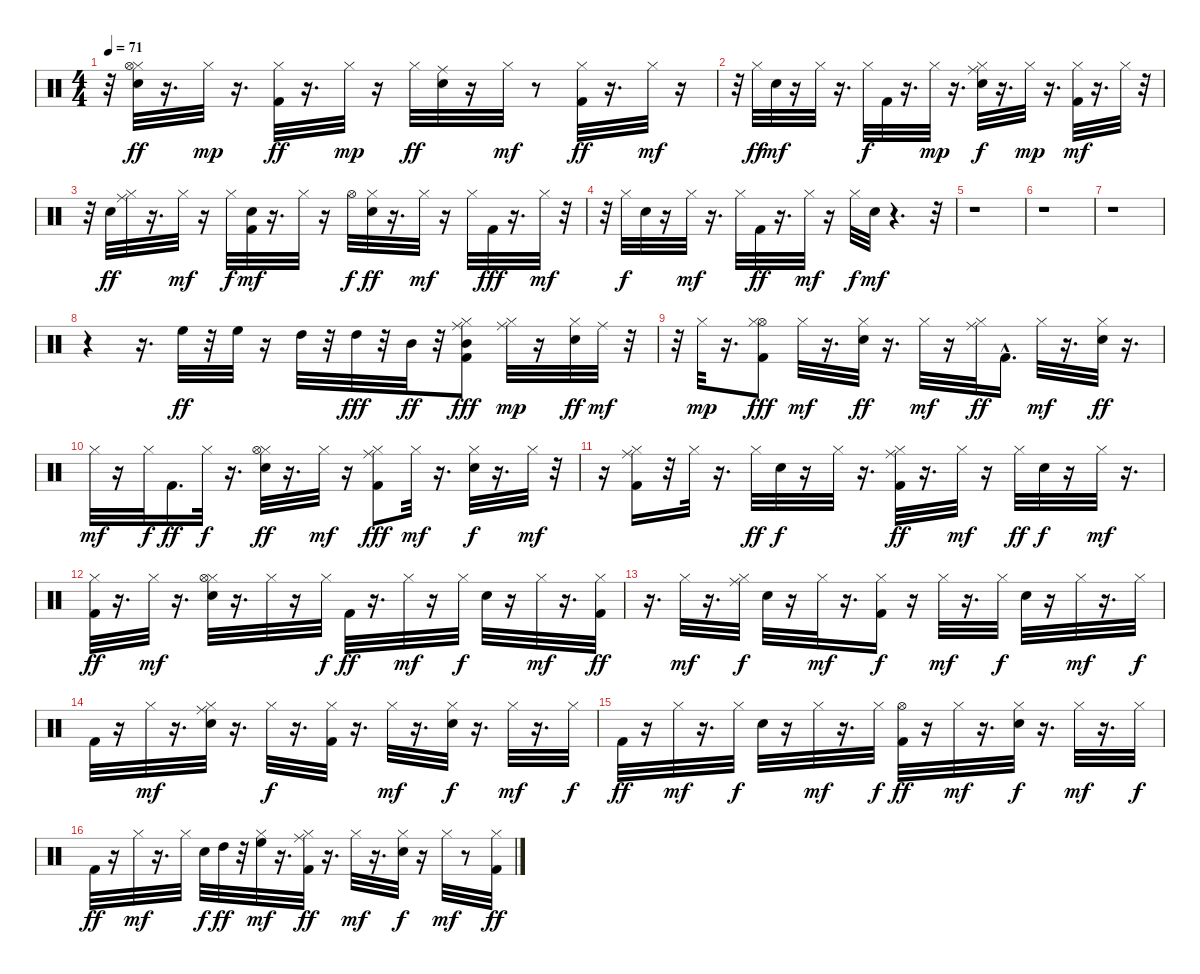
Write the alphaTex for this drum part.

\track "" {instrument percussion}
\staff {score}
\articulation defaults
\ts (4 4)
\tempo 71
\clef neutral
\ks c
r.32{dy mp} ("Hi-Hat (closed)" "Hi-Hat (open)" "Snare (hit) 2").32{dy ff} r.16{d} "Hi-Hat (closed)".32{dy mp} r.16{d} ("Kick (hit) 2" "Hi-Hat (closed)").32{dy ff} r.16{d} "Hi-Hat (closed)".32{dy mp} r.16 "Hi-Hat (closed)".32{dy ff} ("Ride (middle)" "Snare (hit) 2").32 r.16 "Hi-Hat (closed)".32{dy mf} r.8 ("Hi-Hat (closed)" "Kick (hit) 2").32{dy ff} r.16{d} "Hi-Hat (closed)".32{dy mf} r.16 |
r.32 "Hi-Hat (closed)".32{dy ff} "Snare (hit) 2".32{dy mf} r.16 "Hi-Hat (closed)".32 r.16{d} "Hi-Hat (closed)".32{dy f} "Kick (hit) 2".32 r.16{d} "Hi-Hat (closed)".32{dy mp} r.16{d} ("Hi-Hat (closed)" "Ride (middle)" "Snare (hit) 2").32{dy f} r.16{d} "Hi-Hat (closed)".32{dy mp} r.16{d} ("Kick (hit) 2" "Hi-Hat (closed)").32{dy mf} r.16{d} "Hi-Hat (closed)".32 r.32 |
r.32 "Snare (hit) 2".32{dy ff} ("Hi-Hat (closed)" "Ride (middle)").32 r.16{d} "Hi-Hat (closed)".32{dy mf} r.16 "Hi-Hat (closed)".32{dy f} ("Kick (hit) 2" "Snare (hit) 2").32{dy mf} r.16{d} "Hi-Hat (closed)".32 r.16 "Hi-Hat (open)".32{dy f} ("Snare (hit) 2" "Hi-Hat (closed)").32{dy ff} r.16{d} "Hi-Hat (closed)".32{dy mf} r.16 "Hi-Hat (closed)".32 "Kick (hit) 2".32{dy fff} r.16{d} "Hi-Hat (closed)".32{dy mf} r.32 |
r.32 "Hi-Hat (closed)".32{dy f} "Snare (hit) 2".32 r.16 "Hi-Hat (closed)".32{dy mf} r.16{d} "Hi-Hat (closed)".32 "Kick (hit) 2".32{dy ff} r.16{d} "Hi-Hat (closed)".32{dy mf} r.16 "Hi-Hat (closed)".32{dy f} "Snare (hit) 2".32{dy mf} r.4{d} r.32 |
r.1 |
r.1 |
r.1 |
r.4 r.16{d} "High Floor Tom (hit)".32{dy ff} r.32 "High Floor Tom (hit)".32 r.16 "High Tom (hit)".32 r.32 "High Tom (hit)".32{dy fff} r.32 "Mid Tom (hit)".32{dy ff} r.32 ("Ride (middle)" "Hi-Hat (closed)" "Mid Tom (hit)" "Kick (hit) 2").8{dy fff} ("Hi-Hat (closed)" "Ride (middle)").32{dy mp} r.16 ("Hi-Hat (closed)" "Snare (hit) 2").32{dy ff} "Ride (middle)".32{dy mf} r.32 |
r.32 "Hi-Hat (closed)".32{dy mp} r.16{d} ("Hi-Hat (open)" "Hi-Hat (closed)" "Kick (hit) 2").8{dy fff} "Hi-Hat (closed)".32{dy mf} r.16{d} ("Hi-Hat (closed)" "Snare (hit) 2").32{dy ff} r.16{d} "Hi-Hat (closed)".32{dy mf} r.16 ("Ride (middle)" "Hi-Hat (closed)").32{dy ff} "Kick (hit) 2"{hac}.16{d} "Hi-Hat (closed)".32{dy mf} r.16{d} ("Hi-Hat (closed)" "Snare (hit) 2").32{dy ff} r.16{d} |
"Hi-Hat (closed)".32{dy mf} r.16 "Hi-Hat (closed)".32{dy f} "Kick (hit) 2".16{d dy ff} "Hi-Hat (closed)".32{dy f} r.16{d} ("Hi-Hat (closed)" "Hi-Hat (open)" "Snare (hit) 2").32{dy ff} r.16{d} "Hi-Hat (closed)".32{dy mf} r.16 ("Hi-Hat (closed)" "Ride (middle)" "Kick (hit) 2").8{dy fff} "Hi-Hat (closed)".32{dy mf} r.16{d} ("Hi-Hat (closed)" "Snare (hit) 2").32{dy f} r.16{d} "Hi-Hat (closed)".32{dy mf} r.32 |
r.16 ("Hi-Hat (closed)" "Kick (hit) 2" "Ride (middle)").16 r.32 "Hi-Hat (closed)".32 r.16{d} "Hi-Hat (closed)".32{dy ff} "Snare (hit) 2".32{dy f} r.16 "Hi-Hat (closed)".32 r.16{d} ("Hi-Hat (closed)" "Ride (middle)" "Kick (hit) 2").32{dy ff} r.16{d} "Hi-Hat (closed)".32{dy mf} r.16 "Hi-Hat (closed)".32{dy ff} "Snare (hit) 2".32{dy f} r.16 "Hi-Hat (closed)".32{dy mf} r.16{d} |
("Kick (hit) 2" "Hi-Hat (closed)").32{dy ff} r.16{d} "Hi-Hat (closed)".32{dy mf} r.16{d} ("Hi-Hat (closed)" "Hi-Hat (open)" "Snare (hit) 2").32 r.16{d} "Hi-Hat (closed)".32 r.16 "Hi-Hat (closed)".32{dy f} "Kick (hit) 2".32{dy ff} r.16{d} "Hi-Hat (closed)".32{dy mf} r.16 "Hi-Hat (closed)".32{dy f} "Snare (hit) 2".32 r.16 "Hi-Hat (closed)".32{dy mf} r.16{d} ("Hi-Hat (closed)" "Kick (hit) 2").32{dy ff} |
r.16{d} "Hi-Hat (closed)".32{dy mf} r.16{d} ("Ride (middle)" "Hi-Hat (closed)").32{dy f} "Snare (hit) 2".32 r.16 "Hi-Hat (closed)".32{dy mf} r.16{d} ("Hi-Hat (closed)" "Kick (hit) 2").16{dy f} r.16 "Hi-Hat (closed)".32{dy mf} r.16{d} "Hi-Hat (closed)".32{dy f} "Snare (hit) 2".32 r.16 "Hi-Hat (closed)".32{dy mf} r.16{d} "Hi-Hat (closed)".32{dy f} |
"Kick (hit) 2".32 r.16 "Hi-Hat (closed)".32{dy mf} r.16{d} ("Hi-Hat (closed)" "Ride (middle)" "Snare (hit) 2").32 r.16{d} "Hi-Hat (closed)".32{dy f} r.16{d} ("Hi-Hat (closed)" "Kick (hit) 2").32 r.16{d} "Hi-Hat (closed)".32{dy mf} r.16{d} ("Hi-Hat (closed)" "Snare (hit) 2").32{dy f} r.16{d} "Hi-Hat (closed)".32{dy mf} r.16{d} "Hi-Hat (closed)".32{dy f} |
"Kick (hit) 2".32{dy ff} r.16 "Hi-Hat (closed)".32{dy mf} r.16{d} "Hi-Hat (closed)".32{dy f} "Snare (hit) 2".32 r.16 "Hi-Hat (closed)".32{dy mf} r.16{d} "Hi-Hat (closed)".32{dy f} ("Hi-Hat (open)" "Kick (hit) 2").32{dy ff} r.16 "Hi-Hat (closed)".32{dy mf} r.16{d} ("Hi-Hat (closed)" "Snare (hit) 2").32{dy f} r.16{d} "Hi-Hat (closed)".32{dy mf} r.16{d} "Hi-Hat (closed)".32{dy f} |
"Kick (hit) 2".32{dy ff} r.16 "Hi-Hat (closed)".32{dy mf} r.16{d} "Hi-Hat (closed)".32 "Snare (hit) 2".32{dy f} "High Tom (hit)".32{dy ff} r.32 ("High Floor Tom (hit)" "Hi-Hat (closed)").32{dy mf} r.16{d} ("Ride (middle)" "Hi-Hat (closed)" "Kick (hit) 2").32{dy ff} r.16{d} "Hi-Hat (closed)".32{dy mf} r.16{d} ("Hi-Hat (closed)" "Snare (hit) 2").32{dy f} r.16 "Hi-Hat (closed)".32{dy mf} r.8 ("Hi-Hat (closed)" "Kick (hit) 2").32{dy ff}
